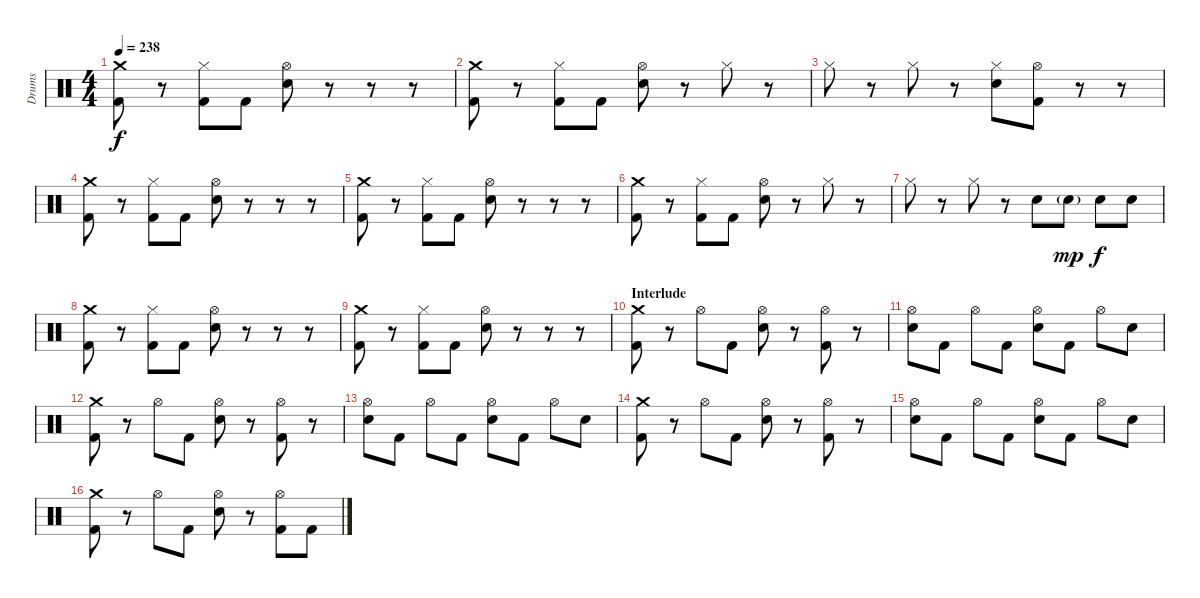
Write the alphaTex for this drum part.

\track ("Drums" "Drums") {instrument percussion}
\staff {score}
\articulation defaults
\ts (4 4)
\tempo 238
\clef neutral
\ks c
("Crash medium (hit)" "Kick (hit) 2").8{dy f} r.8 ("Hi-Hat (closed)" "Kick (hit) 2").8 "Kick (hit) 2".8 ("Hi-Hat (open)" "Electric Snare (hit)").8 r.8 r.8 r.8 |
("Crash medium (hit)" "Kick (hit) 2").8 r.8 ("Hi-Hat (closed)" "Kick (hit) 2").8 "Kick (hit) 2".8 ("Hi-Hat (open)" "Electric Snare (hit)").8 r.8 "Hi-Hat (closed)".8 r.8 |
"Hi-Hat (closed)".8 r.8 "Hi-Hat (closed)".8 r.8 ("Hi-Hat (closed)" "Electric Snare (hit)").8 ("Hi-Hat (open)" "Kick (hit) 2").8 r.8 r.8 |
("Crash medium (hit)" "Kick (hit) 2").8 r.8 ("Hi-Hat (closed)" "Kick (hit) 2").8 "Kick (hit) 2".8 ("Hi-Hat (open)" "Electric Snare (hit)").8 r.8 r.8 r.8 |
("Crash medium (hit)" "Kick (hit) 2").8 r.8 ("Hi-Hat (closed)" "Kick (hit) 2").8 "Kick (hit) 2".8 ("Hi-Hat (open)" "Electric Snare (hit)").8 r.8 r.8 r.8 |
("Crash medium (hit)" "Kick (hit) 2").8 r.8 ("Hi-Hat (closed)" "Kick (hit) 2").8 "Kick (hit) 2".8 ("Hi-Hat (open)" "Electric Snare (hit)").8 r.8 "Hi-Hat (closed)".8 r.8 |
"Hi-Hat (closed)".8 r.8 "Hi-Hat (closed)".8 r.8 "Electric Snare (hit)".8 "Electric Snare (hit)"{g}.8{dy mp} "Electric Snare (hit)".8{dy f} "Electric Snare (hit)".8 |
("Crash medium (hit)" "Kick (hit) 2").8 r.8 ("Hi-Hat (closed)" "Kick (hit) 2").8 "Kick (hit) 2".8 ("Hi-Hat (open)" "Electric Snare (hit)").8 r.8 r.8 r.8 |
("Crash medium (hit)" "Kick (hit) 2").8 r.8 ("Hi-Hat (closed)" "Kick (hit) 2").8 "Kick (hit) 2".8 ("Hi-Hat (open)" "Electric Snare (hit)").8 r.8 r.8 r.8 |
\section ("" "Interlude")
("Crash medium (hit)" "Kick (hit) 2").8 r.8 "Hi-Hat (open)".8 "Kick (hit) 2".8 ("Hi-Hat (open)" "Electric Snare (hit)").8 r.8 ("Hi-Hat (open)" "Kick (hit) 2").8 r.8 |
("Hi-Hat (open)" "Electric Snare (hit)").8 "Kick (hit) 2".8 "Hi-Hat (open)".8 "Kick (hit) 2".8 ("Hi-Hat (open)" "Electric Snare (hit)").8 "Kick (hit) 2".8 "Hi-Hat (open)".8 "Electric Snare (hit)".8 |
("Crash medium (hit)" "Kick (hit) 2").8 r.8 "Hi-Hat (open)".8 "Kick (hit) 2".8 ("Hi-Hat (open)" "Electric Snare (hit)").8 r.8 ("Hi-Hat (open)" "Kick (hit) 2").8 r.8 |
("Hi-Hat (open)" "Electric Snare (hit)").8 "Kick (hit) 2".8 "Hi-Hat (open)".8 "Kick (hit) 2".8 ("Hi-Hat (open)" "Electric Snare (hit)").8 "Kick (hit) 2".8 "Hi-Hat (open)".8 "Electric Snare (hit)".8 |
("Crash medium (hit)" "Kick (hit) 2").8 r.8 "Hi-Hat (open)".8 "Kick (hit) 2".8 ("Hi-Hat (open)" "Electric Snare (hit)").8 r.8 ("Hi-Hat (open)" "Kick (hit) 2").8 r.8 |
("Hi-Hat (open)" "Electric Snare (hit)").8 "Kick (hit) 2".8 "Hi-Hat (open)".8 "Kick (hit) 2".8 ("Hi-Hat (open)" "Electric Snare (hit)").8 "Kick (hit) 2".8 "Hi-Hat (open)".8 "Electric Snare (hit)".8 |
("Crash medium (hit)" "Kick (hit) 2").8 r.8 "Hi-Hat (open)".8 "Kick (hit) 2".8 ("Hi-Hat (open)" "Electric Snare (hit)").8 r.8 ("Hi-Hat (open)" "Kick (hit) 2").8 "Kick (hit) 2".8
